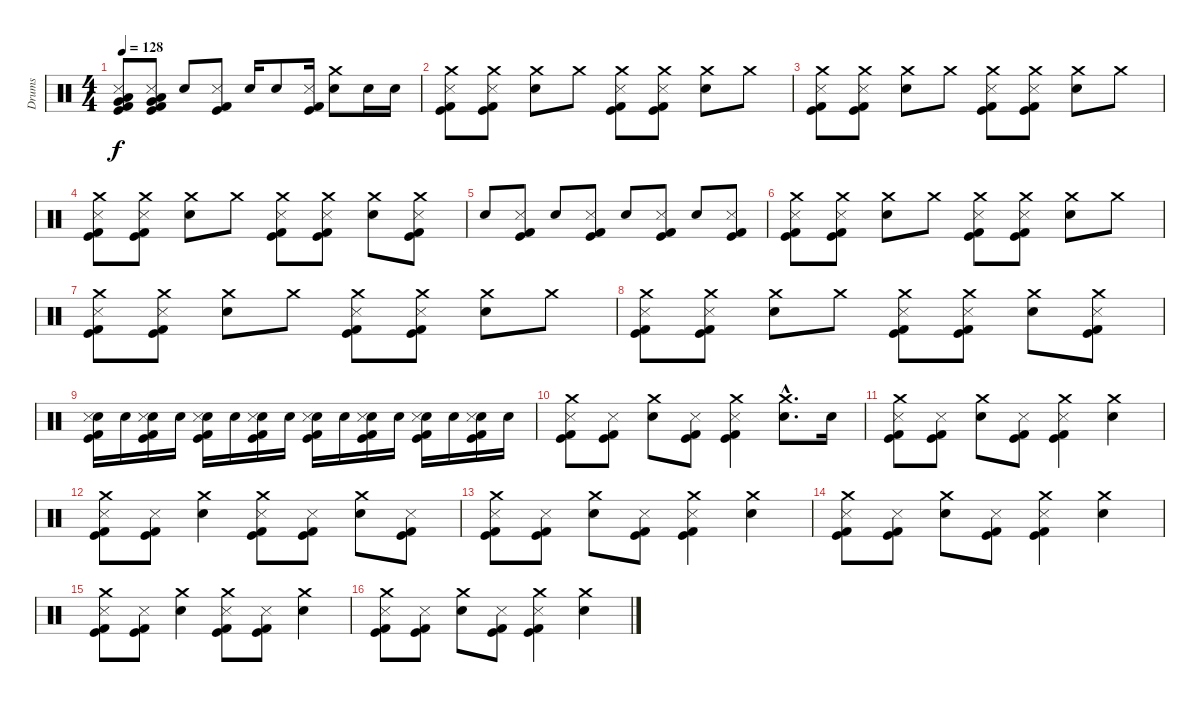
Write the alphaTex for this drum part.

\track ("Drums" "Drums") {instrument percussion}
\staff {score}
\articulation defaults
\ts (4 4)
\tempo 128
\clef neutral
\ks c
("Very Low Tom (hit)" "Low Tom (hit)" "Metronome (hit)" "Kick (hit)" "Kick (hit) 2").8{dy f} ("Very Low Tom (hit)" "Low Tom (hit)" "Metronome (hit)" "Kick (hit)" "Kick (hit) 2").8 "Snare (hit) 2".8 ("Metronome (hit)" "Kick (hit)" "Kick (hit) 2").8 "Snare (hit) 2".16 "Snare (hit) 2".8 ("Metronome (hit)" "Kick (hit)" "Kick (hit) 2").16 ("Snare (hit) 2" "Crash medium (hit)").8 "Snare (hit) 2".16 "Snare (hit) 2".16 |
("Crash medium (hit)" "Metronome (hit)" "Kick (hit)" "Kick (hit) 2").8 ("Crash medium (hit)" "Metronome (hit)" "Kick (hit)" "Kick (hit) 2").8 ("Snare (hit) 2" "Crash medium (hit)").8 "Crash medium (hit)".8 ("Crash medium (hit)" "Metronome (hit)" "Kick (hit)" "Kick (hit) 2").8 ("Crash medium (hit)" "Metronome (hit)" "Kick (hit)" "Kick (hit) 2").8 ("Snare (hit) 2" "Crash medium (hit)").8 "Crash medium (hit)".8 |
("Crash medium (hit)" "Metronome (hit)" "Kick (hit)" "Kick (hit) 2").8 ("Crash medium (hit)" "Metronome (hit)" "Kick (hit)" "Kick (hit) 2").8 ("Snare (hit) 2" "Crash medium (hit)").8 "Crash medium (hit)".8 ("Crash medium (hit)" "Metronome (hit)" "Kick (hit)" "Kick (hit) 2").8 ("Crash medium (hit)" "Metronome (hit)" "Kick (hit)" "Kick (hit) 2").8 ("Snare (hit) 2" "Crash medium (hit)").8 "Crash medium (hit)".8 |
("Crash medium (hit)" "Metronome (hit)" "Kick (hit)" "Kick (hit) 2").8 ("Crash medium (hit)" "Metronome (hit)" "Kick (hit)" "Kick (hit) 2").8 ("Snare (hit) 2" "Crash medium (hit)").8 "Crash medium (hit)".8 ("Crash medium (hit)" "Metronome (hit)" "Kick (hit)" "Kick (hit) 2").8 ("Crash medium (hit)" "Metronome (hit)" "Kick (hit)" "Kick (hit) 2").8 ("Snare (hit) 2" "Crash medium (hit)").8 ("Crash medium (hit)" "Metronome (hit)" "Kick (hit)" "Kick (hit) 2").8 |
"Snare (hit) 2".8 ("Metronome (hit)" "Kick (hit)" "Kick (hit) 2").8 "Snare (hit) 2".8 ("Metronome (hit)" "Kick (hit)" "Kick (hit) 2").8 "Snare (hit) 2".8 ("Metronome (hit)" "Kick (hit)" "Kick (hit) 2").8 "Snare (hit) 2".8 ("Metronome (hit)" "Kick (hit)" "Kick (hit) 2").8 |
("Crash medium (hit)" "Metronome (hit)" "Kick (hit)" "Kick (hit) 2").8 ("Crash medium (hit)" "Metronome (hit)" "Kick (hit)" "Kick (hit) 2").8 ("Snare (hit) 2" "Crash medium (hit)").8 "Crash medium (hit)".8 ("Crash medium (hit)" "Metronome (hit)" "Kick (hit)" "Kick (hit) 2").8 ("Crash medium (hit)" "Metronome (hit)" "Kick (hit)" "Kick (hit) 2").8 ("Snare (hit) 2" "Crash medium (hit)").8 "Crash medium (hit)".8 |
("Crash medium (hit)" "Metronome (hit)" "Kick (hit)" "Kick (hit) 2").8 ("Crash medium (hit)" "Metronome (hit)" "Kick (hit)" "Kick (hit) 2").8 ("Snare (hit) 2" "Crash medium (hit)").8 "Crash medium (hit)".8 ("Crash medium (hit)" "Metronome (hit)" "Kick (hit)" "Kick (hit) 2").8 ("Crash medium (hit)" "Metronome (hit)" "Kick (hit)" "Kick (hit) 2").8 ("Snare (hit) 2" "Crash medium (hit)").8 "Crash medium (hit)".8 |
("Crash medium (hit)" "Metronome (hit)" "Kick (hit)" "Kick (hit) 2").8 ("Crash medium (hit)" "Metronome (hit)" "Kick (hit)" "Kick (hit) 2").8 ("Snare (hit) 2" "Crash medium (hit)").8 "Crash medium (hit)".8 ("Crash medium (hit)" "Metronome (hit)" "Kick (hit)" "Kick (hit) 2").8 ("Crash medium (hit)" "Metronome (hit)" "Kick (hit)" "Kick (hit) 2").8 ("Snare (hit) 2" "Crash medium (hit)").8 ("Crash medium (hit)" "Metronome (hit)" "Kick (hit)" "Kick (hit) 2").8 |
("Snare (hit) 2" "Metronome (hit)" "Kick (hit)" "Kick (hit) 2").16 "Snare (hit) 2".16 ("Snare (hit) 2" "Metronome (hit)" "Kick (hit)" "Kick (hit) 2").16 "Snare (hit) 2".16 ("Snare (hit) 2" "Metronome (hit)" "Kick (hit)" "Kick (hit) 2").16 "Snare (hit) 2".16 ("Snare (hit) 2" "Metronome (hit)" "Kick (hit)" "Kick (hit) 2").16 "Snare (hit) 2".16 ("Snare (hit) 2" "Metronome (hit)" "Kick (hit)" "Kick (hit) 2").16 "Snare (hit) 2".16 ("Snare (hit) 2" "Metronome (hit)" "Kick (hit)" "Kick (hit) 2").16 "Snare (hit) 2".16 ("Snare (hit) 2" "Metronome (hit)" "Kick (hit)" "Kick (hit) 2").16 "Snare (hit) 2".16 ("Snare (hit) 2" "Metronome (hit)" "Kick (hit)" "Kick (hit) 2").16 "Snare (hit) 2".16 |
("Crash medium (hit)" "Metronome (hit)" "Kick (hit)" "Kick (hit) 2").8 ("Metronome (hit)" "Kick (hit)" "Kick (hit) 2").8 ("Snare (hit) 2" "Crash medium (hit)").8 ("Metronome (hit)" "Kick (hit)" "Kick (hit) 2").8 ("Crash medium (hit)" "Metronome (hit)" "Kick (hit)" "Kick (hit) 2").4 ("Snare (hit) 2"{hac} "Crash medium (hit)"{hac}).8{d} "Snare (hit) 2".16 |
("Crash medium (hit)" "Metronome (hit)" "Kick (hit)" "Kick (hit) 2").8 ("Metronome (hit)" "Kick (hit)" "Kick (hit) 2").8 ("Snare (hit) 2" "Crash medium (hit)").8 ("Metronome (hit)" "Kick (hit)" "Kick (hit) 2").8 ("Crash medium (hit)" "Metronome (hit)" "Kick (hit)" "Kick (hit) 2").4 ("Snare (hit) 2" "Crash medium (hit)").4 |
("Crash medium (hit)" "Metronome (hit)" "Kick (hit)" "Kick (hit) 2").8 ("Metronome (hit)" "Kick (hit)" "Kick (hit) 2").8 ("Snare (hit) 2" "Crash medium (hit)").4 ("Crash medium (hit)" "Metronome (hit)" "Kick (hit)" "Kick (hit) 2").8 ("Metronome (hit)" "Kick (hit)" "Kick (hit) 2").8 ("Snare (hit) 2" "Crash medium (hit)").8 ("Metronome (hit)" "Kick (hit)" "Kick (hit) 2").8 |
("Crash medium (hit)" "Metronome (hit)" "Kick (hit)" "Kick (hit) 2").8 ("Metronome (hit)" "Kick (hit)" "Kick (hit) 2").8 ("Snare (hit) 2" "Crash medium (hit)").8 ("Metronome (hit)" "Kick (hit)" "Kick (hit) 2").8 ("Crash medium (hit)" "Metronome (hit)" "Kick (hit)" "Kick (hit) 2").4 ("Snare (hit) 2" "Crash medium (hit)").4 |
("Crash medium (hit)" "Metronome (hit)" "Kick (hit)" "Kick (hit) 2").8 ("Metronome (hit)" "Kick (hit)" "Kick (hit) 2").8 ("Snare (hit) 2" "Crash medium (hit)").8 ("Metronome (hit)" "Kick (hit)" "Kick (hit) 2").8 ("Crash medium (hit)" "Metronome (hit)" "Kick (hit)" "Kick (hit) 2").4 ("Snare (hit) 2" "Crash medium (hit)").4 |
("Crash medium (hit)" "Metronome (hit)" "Kick (hit)" "Kick (hit) 2").8 ("Metronome (hit)" "Kick (hit)" "Kick (hit) 2").8 ("Snare (hit) 2" "Crash medium (hit)").4 ("Crash medium (hit)" "Metronome (hit)" "Kick (hit)" "Kick (hit) 2").8 ("Metronome (hit)" "Kick (hit)" "Kick (hit) 2").8 ("Snare (hit) 2" "Crash medium (hit)").4 |
("Crash medium (hit)" "Metronome (hit)" "Kick (hit)" "Kick (hit) 2").8 ("Metronome (hit)" "Kick (hit)" "Kick (hit) 2").8 ("Snare (hit) 2" "Crash medium (hit)").8 ("Metronome (hit)" "Kick (hit)" "Kick (hit) 2").8 ("Crash medium (hit)" "Metronome (hit)" "Kick (hit)" "Kick (hit) 2").4 ("Snare (hit) 2" "Crash medium (hit)").4
